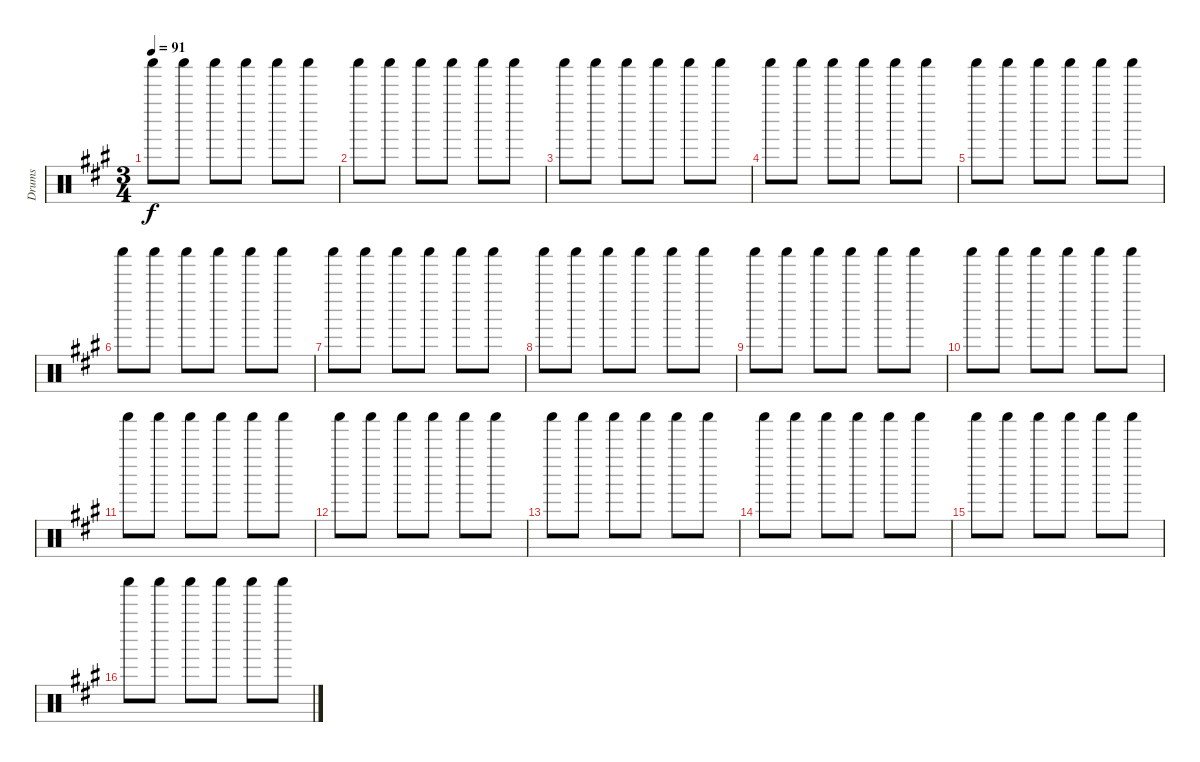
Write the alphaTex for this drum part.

\track ("Drums" "Drums") {instrument percussion}
\staff {score}
\articulation defaults
\ts (3 4)
\tempo 91
\clef neutral
\ks a "Shaker (hit)".8{dy f} "Shaker (hit)".8 "Shaker (hit)".8 "Shaker (hit)".8 "Shaker (hit)".8 "Shaker (hit)".8
|
"Shaker (hit)".8 "Shaker (hit)".8 "Shaker (hit)".8 "Shaker (hit)".8 "Shaker (hit)".8 "Shaker (hit)".8 |
"Shaker (hit)".8 "Shaker (hit)".8 "Shaker (hit)".8 "Shaker (hit)".8 "Shaker (hit)".8 "Shaker (hit)".8 |
"Shaker (hit)".8 "Shaker (hit)".8 "Shaker (hit)".8 "Shaker (hit)".8 "Shaker (hit)".8 "Shaker (hit)".8 |
"Shaker (hit)".8 "Shaker (hit)".8 "Shaker (hit)".8 "Shaker (hit)".8 "Shaker (hit)".8 "Shaker (hit)".8 |
"Shaker (hit)".8 "Shaker (hit)".8 "Shaker (hit)".8 "Shaker (hit)".8 "Shaker (hit)".8 "Shaker (hit)".8 |
"Shaker (hit)".8 "Shaker (hit)".8 "Shaker (hit)".8 "Shaker (hit)".8 "Shaker (hit)".8 "Shaker (hit)".8 |
"Shaker (hit)".8 "Shaker (hit)".8 "Shaker (hit)".8 "Shaker (hit)".8 "Shaker (hit)".8 "Shaker (hit)".8 |
"Shaker (hit)".8 "Shaker (hit)".8 "Shaker (hit)".8 "Shaker (hit)".8 "Shaker (hit)".8 "Shaker (hit)".8 |
"Shaker (hit)".8 "Shaker (hit)".8 "Shaker (hit)".8 "Shaker (hit)".8 "Shaker (hit)".8 "Shaker (hit)".8 |
"Shaker (hit)".8 "Shaker (hit)".8 "Shaker (hit)".8 "Shaker (hit)".8 "Shaker (hit)".8 "Shaker (hit)".8 |
"Shaker (hit)".8 "Shaker (hit)".8 "Shaker (hit)".8 "Shaker (hit)".8 "Shaker (hit)".8 "Shaker (hit)".8 |
"Shaker (hit)".8 "Shaker (hit)".8 "Shaker (hit)".8 "Shaker (hit)".8 "Shaker (hit)".8 "Shaker (hit)".8 |
"Shaker (hit)".8 "Shaker (hit)".8 "Shaker (hit)".8 "Shaker (hit)".8 "Shaker (hit)".8 "Shaker (hit)".8 |
"Shaker (hit)".8 "Shaker (hit)".8 "Shaker (hit)".8 "Shaker (hit)".8 "Shaker (hit)".8 "Shaker (hit)".8 |
"Shaker (hit)".8 "Shaker (hit)".8 "Shaker (hit)".8 "Shaker (hit)".8 "Shaker (hit)".8 "Shaker (hit)".8
